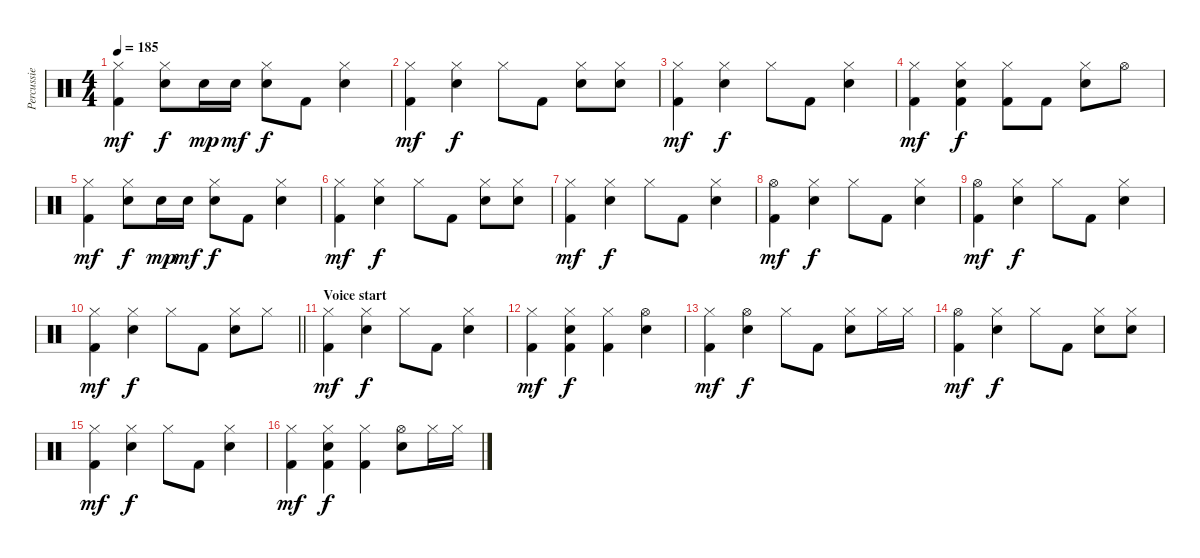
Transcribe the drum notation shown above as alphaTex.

\track ("Percussie" "Percussie") {instrument percussion}
\staff {score}
\articulation defaults
\ts (4 4)
\tempo 185
\clef neutral
\ks c
("Hi-Hat (closed)" "Kick (hit) 2").4{dy mf} ("Hi-Hat (closed)" "Electric Snare (hit)").8{dy f} "Electric Snare (hit)".16{dy mp} "Electric Snare (hit)".16{dy mf} ("Hi-Hat (closed)" "Electric Snare (hit)").8{dy f} "Kick (hit) 2".8 ("Hi-Hat (closed)" "Electric Snare (hit)").4 |
("Hi-Hat (closed)" "Kick (hit) 2").4{dy mf} ("Hi-Hat (closed)" "Electric Snare (hit)").4{dy f} "Hi-Hat (closed)".8 "Kick (hit) 2".8 ("Hi-Hat (closed)" "Electric Snare (hit)").8 ("Hi-Hat (closed)" "Electric Snare (hit)").8 |
("Hi-Hat (closed)" "Kick (hit) 2").4{dy mf} ("Hi-Hat (closed)" "Electric Snare (hit)").4{dy f} "Hi-Hat (closed)".8 "Kick (hit) 2".8 ("Hi-Hat (closed)" "Electric Snare (hit)").4 |
("Hi-Hat (closed)" "Kick (hit) 2").4{dy mf} ("Hi-Hat (closed)" "Electric Snare (hit)" "Kick (hit) 2").4{dy f} ("Hi-Hat (closed)" "Kick (hit) 2").8 "Kick (hit) 2".8 ("Hi-Hat (closed)" "Electric Snare (hit)").8 "Hi-Hat (open)".8 |
("Hi-Hat (closed)" "Kick (hit) 2").4{dy mf} ("Hi-Hat (closed)" "Electric Snare (hit)").8{dy f} "Electric Snare (hit)".16{dy mp} "Electric Snare (hit)".16{dy mf} ("Hi-Hat (closed)" "Electric Snare (hit)").8{dy f} "Kick (hit) 2".8 ("Hi-Hat (closed)" "Electric Snare (hit)").4 |
("Hi-Hat (closed)" "Kick (hit) 2").4{dy mf} ("Hi-Hat (closed)" "Electric Snare (hit)").4{dy f} "Hi-Hat (closed)".8 "Kick (hit) 2".8 ("Hi-Hat (closed)" "Electric Snare (hit)").8 ("Hi-Hat (closed)" "Electric Snare (hit)").8 |
("Hi-Hat (closed)" "Kick (hit) 2").4{dy mf} ("Hi-Hat (closed)" "Electric Snare (hit)").4{dy f} "Hi-Hat (closed)".8 "Kick (hit) 2".8 ("Hi-Hat (closed)" "Electric Snare (hit)").4 |
("Hi-Hat (open)" "Kick (hit) 2").4{dy mf} ("Hi-Hat (closed)" "Electric Snare (hit)").4{dy f} "Hi-Hat (closed)".8 "Kick (hit) 2".8 ("Hi-Hat (closed)" "Electric Snare (hit)").4 |
("Hi-Hat (open)" "Kick (hit) 2").4{dy mf} ("Hi-Hat (closed)" "Electric Snare (hit)").4{dy f} "Hi-Hat (closed)".8 "Kick (hit) 2".8 ("Hi-Hat (closed)" "Electric Snare (hit)").4 |
\barLineRight lightlight
("Hi-Hat (closed)" "Kick (hit) 2").4{dy mf} ("Hi-Hat (closed)" "Electric Snare (hit)").4{dy f} "Hi-Hat (closed)".8 "Kick (hit) 2".8 ("Hi-Hat (closed)" "Electric Snare (hit)").8 "Hi-Hat (closed)".8 |
\section ("" "Voice start")
("Hi-Hat (closed)" "Kick (hit) 2").4{dy mf} ("Hi-Hat (closed)" "Electric Snare (hit)").4{dy f} "Hi-Hat (closed)".8 "Kick (hit) 2".8 ("Hi-Hat (closed)" "Electric Snare (hit)").4 |
("Hi-Hat (closed)" "Kick (hit) 2").4{dy mf} ("Hi-Hat (closed)" "Electric Snare (hit)" "Kick (hit) 2").4{dy f} ("Hi-Hat (closed)" "Kick (hit) 2").4 ("Hi-Hat (open)" "Electric Snare (hit)").4 |
("Hi-Hat (closed)" "Kick (hit) 2").4{dy mf} ("Hi-Hat (open)" "Electric Snare (hit)").4{dy f} "Hi-Hat (closed)".8 "Kick (hit) 2".8 ("Hi-Hat (closed)" "Electric Snare (hit)").8 "Hi-Hat (closed)".16 "Hi-Hat (closed)".16 |
("Hi-Hat (open)" "Kick (hit) 2").4{dy mf} ("Hi-Hat (closed)" "Electric Snare (hit)").4{dy f} "Hi-Hat (closed)".8 "Kick (hit) 2".8 ("Hi-Hat (closed)" "Electric Snare (hit)").8 ("Hi-Hat (closed)" "Electric Snare (hit)").8 |
("Hi-Hat (closed)" "Kick (hit) 2").4{dy mf} ("Hi-Hat (closed)" "Electric Snare (hit)").4{dy f} "Hi-Hat (closed)".8 "Kick (hit) 2".8 ("Hi-Hat (closed)" "Electric Snare (hit)").4 |
("Hi-Hat (closed)" "Kick (hit) 2").4{dy mf} ("Hi-Hat (closed)" "Electric Snare (hit)" "Kick (hit) 2").4{dy f} ("Hi-Hat (closed)" "Kick (hit) 2").4 ("Hi-Hat (open)" "Electric Snare (hit)").8 "Hi-Hat (closed)".16 "Hi-Hat (closed)".16
